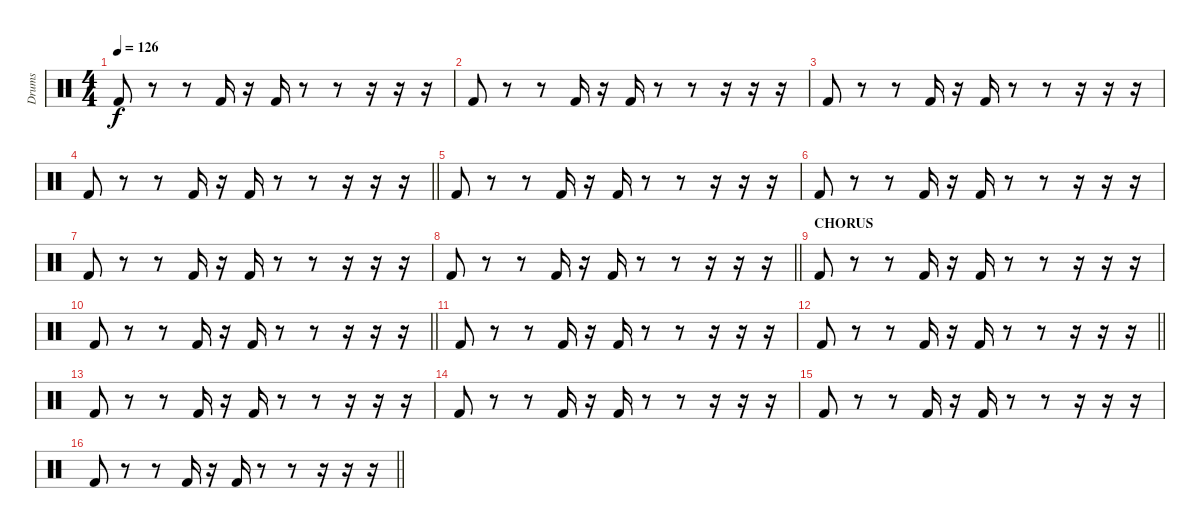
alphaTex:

\track ("Drums" "Drums") {instrument percussion}
\staff {score}
\articulation defaults
\ts (4 4)
\tempo 126
\clef neutral
\ks c "Kick (hit) 2".8{dy f}
r.8 r.8 "Kick (hit) 2".16 r.16 "Kick (hit) 2".16 r.8 r.8 r.16 r.16 r.16 |
"Kick (hit) 2".8 r.8 r.8 "Kick (hit) 2".16 r.16 "Kick (hit) 2".16 r.8 r.8 r.16 r.16 r.16 |
"Kick (hit) 2".8 r.8 r.8 "Kick (hit) 2".16 r.16 "Kick (hit) 2".16 r.8 r.8 r.16 r.16 r.16 |
\barLineRight lightlight "Kick (hit) 2".8
r.8 r.8 "Kick (hit) 2".16 r.16 "Kick (hit) 2".16 r.8 r.8 r.16 r.16 r.16 |
"Kick (hit) 2".8 r.8 r.8 "Kick (hit) 2".16 r.16 "Kick (hit) 2".16 r.8 r.8 r.16 r.16 r.16 |
"Kick (hit) 2".8 r.8 r.8 "Kick (hit) 2".16 r.16 "Kick (hit) 2".16 r.8 r.8 r.16 r.16 r.16 |
"Kick (hit) 2".8 r.8 r.8 "Kick (hit) 2".16 r.16 "Kick (hit) 2".16 r.8 r.8 r.16 r.16 r.16 |
\barLineRight lightlight "Kick (hit) 2".8
r.8 r.8 "Kick (hit) 2".16 r.16 "Kick (hit) 2".16 r.8 r.8 r.16 r.16 r.16 |
\section ("" "CHORUS")
"Kick (hit) 2".8 r.8 r.8 "Kick (hit) 2".16 r.16 "Kick (hit) 2".16 r.8 r.8 r.16 r.16 r.16 |
\barLineRight lightlight "Kick (hit) 2".8
r.8 r.8 "Kick (hit) 2".16 r.16 "Kick (hit) 2".16 r.8 r.8 r.16 r.16 r.16 |
"Kick (hit) 2".8 r.8 r.8 "Kick (hit) 2".16 r.16 "Kick (hit) 2".16 r.8 r.8 r.16 r.16 r.16 |
\barLineRight lightlight "Kick (hit) 2".8
r.8 r.8 "Kick (hit) 2".16 r.16 "Kick (hit) 2".16 r.8 r.8 r.16 r.16 r.16 |
"Kick (hit) 2".8 r.8 r.8 "Kick (hit) 2".16 r.16 "Kick (hit) 2".16 r.8 r.8 r.16 r.16 r.16 |
"Kick (hit) 2".8 r.8 r.8 "Kick (hit) 2".16 r.16 "Kick (hit) 2".16 r.8 r.8 r.16 r.16 r.16 |
"Kick (hit) 2".8 r.8 r.8 "Kick (hit) 2".16 r.16 "Kick (hit) 2".16 r.8 r.8 r.16 r.16 r.16 |
\barLineRight lightlight "Kick (hit) 2".8
r.8 r.8 "Kick (hit) 2".16 r.16 "Kick (hit) 2".16 r.8 r.8 r.16 r.16 r.16
